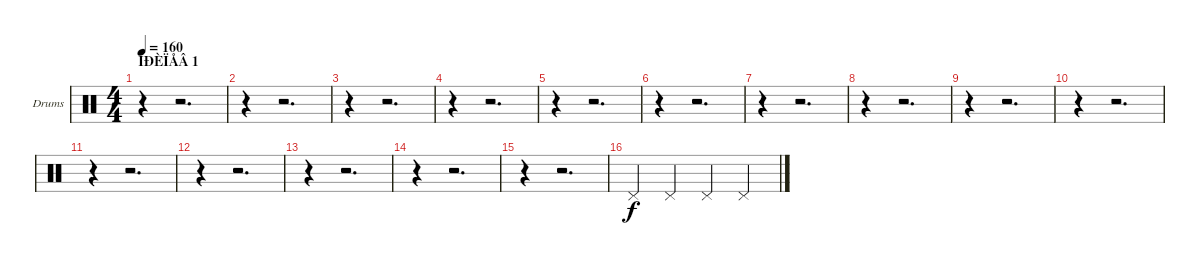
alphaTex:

\bracketExtendMode groupsimilarinstruments
\firstSystemTrackNameOrientation horizontal
\otherSystemsTrackNameOrientation horizontal
\track ("Drumkit" "Drums") {instrument percussion}
\staff {score}
\articulation defaults
\ts (4 4)
\section ("" "ÏÐÈÏÅÂ 1")
\tempo 160
\clef neutral
\ks c
r.4{dy f} r.2{d} |
r.4 r.2{d} |
r.4 r.2{d} |
r.4 r.2{d} |
r.4 r.2{d} |
r.4 r.2{d} |
r.4 r.2{d} |
r.4 r.2{d} |
r.4 r.2{d} |
r.4 r.2{d} |
r.4 r.2{d} |
r.4 r.2{d} |
r.4 r.2{d} |
r.4 r.2{d} |
r.4 r.2{d} |
"Pedal Hi-Hat (hit)".4 "Pedal Hi-Hat (hit)".4 "Pedal Hi-Hat (hit)".4 "Pedal Hi-Hat (hit)".4
